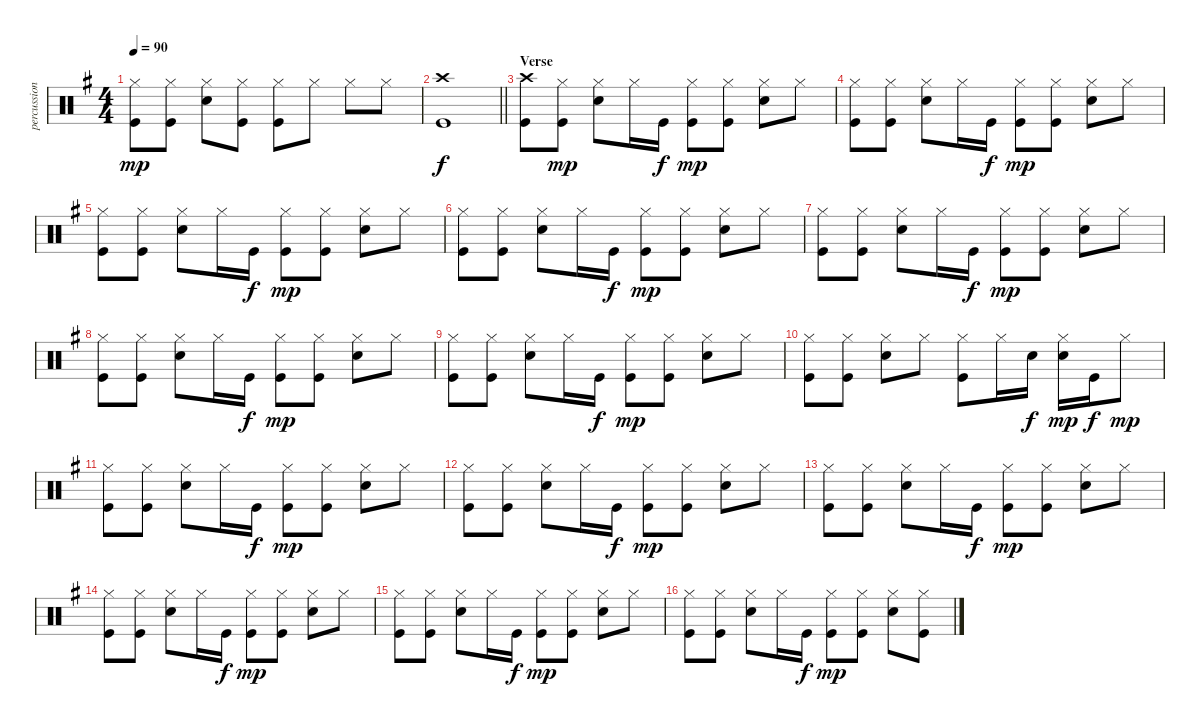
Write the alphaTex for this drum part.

\track ("percussion" "percussion") {instrument percussion}
\staff {score}
\articulation defaults
\ts (4 4)
\tempo 90
\clef neutral
\ks g
("Hi-Hat (closed)" "Kick (hit)").8{dy mp} ("Hi-Hat (closed)" "Kick (hit)").8 ("Electric Snare (hit)" "Hi-Hat (closed)").8 ("Hi-Hat (closed)" "Kick (hit)").8 ("Hi-Hat (closed)" "Kick (hit)").8 "Hi-Hat (closed)".8 "Hi-Hat (closed)".8 "Hi-Hat (closed)".8 |
\barLineRight lightlight
("Crash high (hit)" "Kick (hit)").1{dy f} |
\section ("" "Verse")
("Crash high (hit)" "Kick (hit)").8 ("Hi-Hat (closed)" "Kick (hit)").8{dy mp} ("Electric Snare (hit)" "Hi-Hat (closed)").8 "Hi-Hat (closed)".16 "Kick (hit)".16{dy f} ("Hi-Hat (closed)" "Kick (hit)").8{dy mp} ("Hi-Hat (closed)" "Kick (hit)").8 ("Electric Snare (hit)" "Hi-Hat (closed)").8 "Hi-Hat (closed)".8 |
("Hi-Hat (closed)" "Kick (hit)").8 ("Hi-Hat (closed)" "Kick (hit)").8 ("Electric Snare (hit)" "Hi-Hat (closed)").8 "Hi-Hat (closed)".16 "Kick (hit)".16{dy f} ("Hi-Hat (closed)" "Kick (hit)").8{dy mp} ("Hi-Hat (closed)" "Kick (hit)").8 ("Electric Snare (hit)" "Hi-Hat (closed)").8 "Hi-Hat (closed)".8 |
("Hi-Hat (closed)" "Kick (hit)").8 ("Hi-Hat (closed)" "Kick (hit)").8 ("Electric Snare (hit)" "Hi-Hat (closed)").8 "Hi-Hat (closed)".16 "Kick (hit)".16{dy f} ("Hi-Hat (closed)" "Kick (hit)").8{dy mp} ("Hi-Hat (closed)" "Kick (hit)").8 ("Electric Snare (hit)" "Hi-Hat (closed)").8 "Hi-Hat (closed)".8 |
("Hi-Hat (closed)" "Kick (hit)").8 ("Hi-Hat (closed)" "Kick (hit)").8 ("Electric Snare (hit)" "Hi-Hat (closed)").8 "Hi-Hat (closed)".16 "Kick (hit)".16{dy f} ("Hi-Hat (closed)" "Kick (hit)").8{dy mp} ("Hi-Hat (closed)" "Kick (hit)").8 ("Electric Snare (hit)" "Hi-Hat (closed)").8 "Hi-Hat (closed)".8 |
("Hi-Hat (closed)" "Kick (hit)").8 ("Hi-Hat (closed)" "Kick (hit)").8 ("Electric Snare (hit)" "Hi-Hat (closed)").8 "Hi-Hat (closed)".16 "Kick (hit)".16{dy f} ("Hi-Hat (closed)" "Kick (hit)").8{dy mp} ("Hi-Hat (closed)" "Kick (hit)").8 ("Electric Snare (hit)" "Hi-Hat (closed)").8 "Hi-Hat (closed)".8 |
("Hi-Hat (closed)" "Kick (hit)").8 ("Hi-Hat (closed)" "Kick (hit)").8 ("Electric Snare (hit)" "Hi-Hat (closed)").8 "Hi-Hat (closed)".16 "Kick (hit)".16{dy f} ("Hi-Hat (closed)" "Kick (hit)").8{dy mp} ("Hi-Hat (closed)" "Kick (hit)").8 ("Electric Snare (hit)" "Hi-Hat (closed)").8 "Hi-Hat (closed)".8 |
("Hi-Hat (closed)" "Kick (hit)").8 ("Hi-Hat (closed)" "Kick (hit)").8 ("Electric Snare (hit)" "Hi-Hat (closed)").8 "Hi-Hat (closed)".16 "Kick (hit)".16{dy f} ("Hi-Hat (closed)" "Kick (hit)").8{dy mp} ("Hi-Hat (closed)" "Kick (hit)").8 ("Electric Snare (hit)" "Hi-Hat (closed)").8 "Hi-Hat (closed)".8 |
("Hi-Hat (closed)" "Kick (hit)").8 ("Hi-Hat (closed)" "Kick (hit)").8 ("Electric Snare (hit)" "Hi-Hat (closed)").8 "Hi-Hat (closed)".8 ("Hi-Hat (closed)" "Kick (hit)").8 "Hi-Hat (closed)".16 "Electric Snare (hit)".16{dy f} ("Electric Snare (hit)" "Hi-Hat (closed)").16{dy mp} "Kick (hit)".16{dy f} "Hi-Hat (closed)".8{dy mp} |
("Hi-Hat (closed)" "Kick (hit)").8 ("Hi-Hat (closed)" "Kick (hit)").8 ("Electric Snare (hit)" "Hi-Hat (closed)").8 "Hi-Hat (closed)".16 "Kick (hit)".16{dy f} ("Hi-Hat (closed)" "Kick (hit)").8{dy mp} ("Hi-Hat (closed)" "Kick (hit)").8 ("Electric Snare (hit)" "Hi-Hat (closed)").8 "Hi-Hat (closed)".8 |
("Hi-Hat (closed)" "Kick (hit)").8 ("Hi-Hat (closed)" "Kick (hit)").8 ("Electric Snare (hit)" "Hi-Hat (closed)").8 "Hi-Hat (closed)".16 "Kick (hit)".16{dy f} ("Hi-Hat (closed)" "Kick (hit)").8{dy mp} ("Hi-Hat (closed)" "Kick (hit)").8 ("Electric Snare (hit)" "Hi-Hat (closed)").8 "Hi-Hat (closed)".8 |
("Hi-Hat (closed)" "Kick (hit)").8 ("Hi-Hat (closed)" "Kick (hit)").8 ("Electric Snare (hit)" "Hi-Hat (closed)").8 "Hi-Hat (closed)".16 "Kick (hit)".16{dy f} ("Hi-Hat (closed)" "Kick (hit)").8{dy mp} ("Hi-Hat (closed)" "Kick (hit)").8 ("Electric Snare (hit)" "Hi-Hat (closed)").8 "Hi-Hat (closed)".8 |
("Hi-Hat (closed)" "Kick (hit)").8 ("Hi-Hat (closed)" "Kick (hit)").8 ("Electric Snare (hit)" "Hi-Hat (closed)").8 "Hi-Hat (closed)".16 "Kick (hit)".16{dy f} ("Hi-Hat (closed)" "Kick (hit)").8{dy mp} ("Hi-Hat (closed)" "Kick (hit)").8 ("Electric Snare (hit)" "Hi-Hat (closed)").8 "Hi-Hat (closed)".8 |
("Hi-Hat (closed)" "Kick (hit)").8 ("Hi-Hat (closed)" "Kick (hit)").8 ("Electric Snare (hit)" "Hi-Hat (closed)").8 "Hi-Hat (closed)".16 "Kick (hit)".16{dy f} ("Hi-Hat (closed)" "Kick (hit)").8{dy mp} ("Hi-Hat (closed)" "Kick (hit)").8 ("Electric Snare (hit)" "Hi-Hat (closed)").8 "Hi-Hat (closed)".8 |
("Hi-Hat (closed)" "Kick (hit)").8 ("Hi-Hat (closed)" "Kick (hit)").8 ("Electric Snare (hit)" "Hi-Hat (closed)").8 "Hi-Hat (closed)".16 "Kick (hit)".16{dy f} ("Hi-Hat (closed)" "Kick (hit)").8{dy mp} ("Hi-Hat (closed)" "Kick (hit)").8 ("Electric Snare (hit)" "Hi-Hat (closed)").8 ("Hi-Hat (closed)" "Kick (hit)").8
